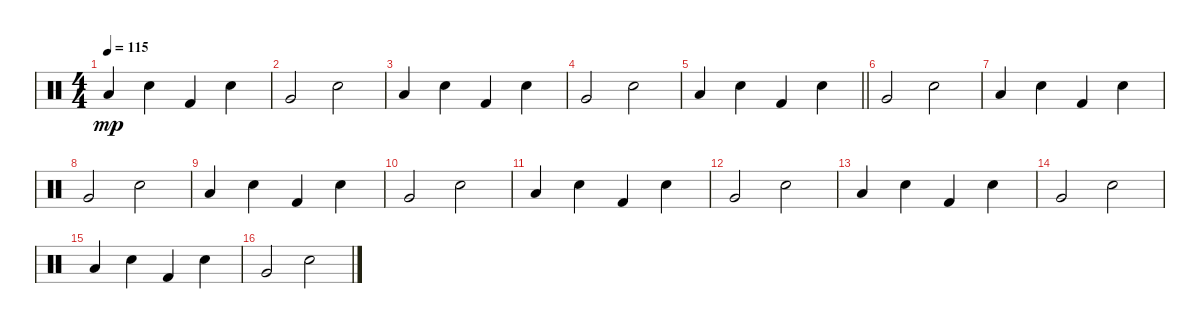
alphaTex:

\track "" {instrument percussion}
\staff {score}
\articulation defaults
\ts (4 4)
\tempo 115
\clef neutral
\ks c "Low Floor Tom (hit)".4{dy mp} "Snare (hit) 2".4 "Kick (hit) 2".4 "Snare (hit) 2".4
|
"Very Low Tom (hit)".2 "Electric Snare (hit)".2 |
"Low Floor Tom (hit)".4 "Snare (hit) 2".4 "Kick (hit) 2".4 "Snare (hit) 2".4 |
"Very Low Tom (hit)".2 "Electric Snare (hit)".2 |
\barLineRight lightlight "Low Floor Tom (hit)".4 "Snare (hit) 2".4 "Kick (hit) 2".4 "Snare (hit) 2".4
|
\section ("" "")
"Very Low Tom (hit)".2 "Electric Snare (hit)".2 |
"Low Floor Tom (hit)".4 "Snare (hit) 2".4 "Kick (hit) 2".4 "Snare (hit) 2".4 |
"Very Low Tom (hit)".2 "Electric Snare (hit)".2 |
"Low Floor Tom (hit)".4 "Snare (hit) 2".4 "Kick (hit) 2".4 "Snare (hit) 2".4 |
"Very Low Tom (hit)".2 "Electric Snare (hit)".2 |
"Low Floor Tom (hit)".4 "Snare (hit) 2".4 "Kick (hit) 2".4 "Snare (hit) 2".4 |
"Very Low Tom (hit)".2 "Electric Snare (hit)".2 |
"Low Floor Tom (hit)".4 "Snare (hit) 2".4 "Kick (hit) 2".4 "Snare (hit) 2".4 |
"Very Low Tom (hit)".2 "Electric Snare (hit)".2 |
"Low Floor Tom (hit)".4 "Snare (hit) 2".4 "Kick (hit) 2".4 "Snare (hit) 2".4 |
"Very Low Tom (hit)".2 "Electric Snare (hit)".2
